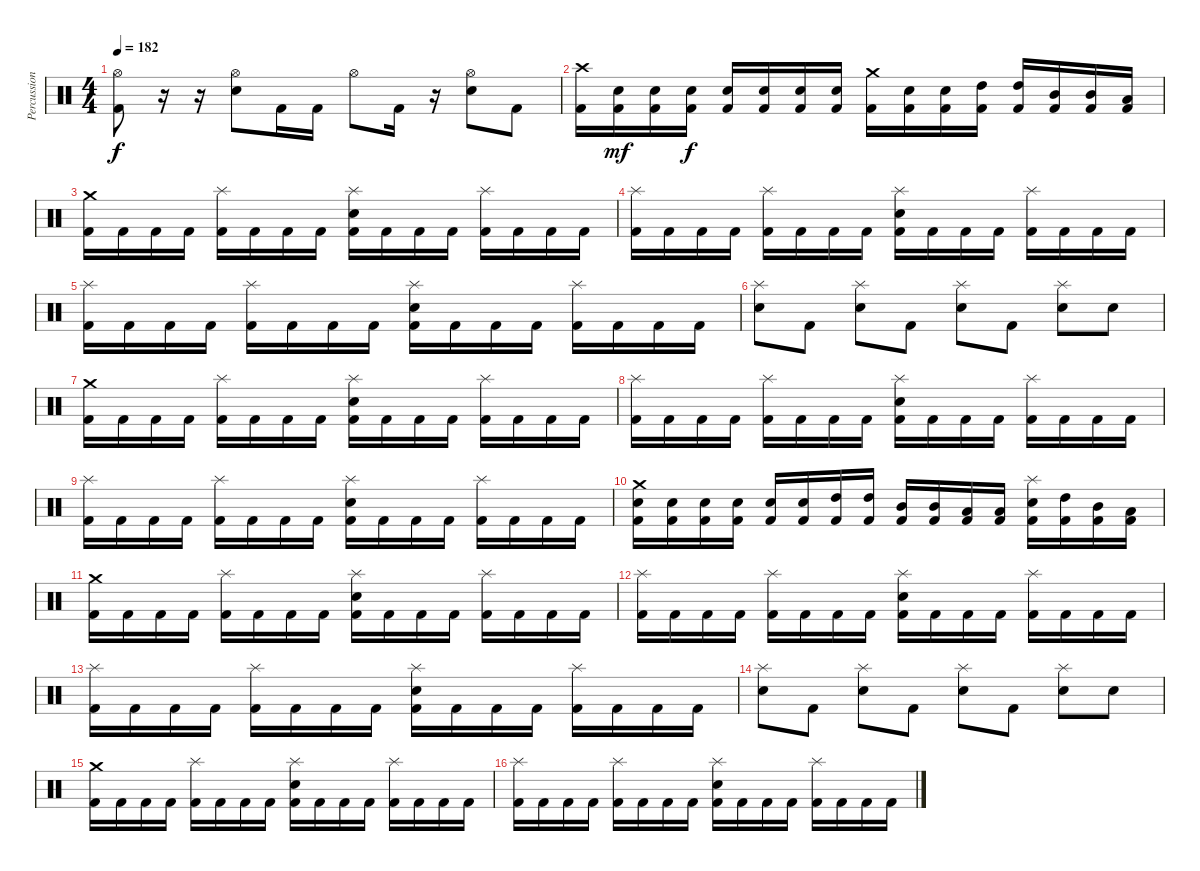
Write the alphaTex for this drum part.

\track ("Percussion" "Percussion") {instrument percussion}
\staff {score}
\articulation defaults
\ts (4 4)
\tempo 182
\clef neutral
\ks c
("Hi-Hat (open)" "Kick (hit) 2").8{dy f} r.16 r.16 ("Hi-Hat (open)" "Electric Snare (hit)").8 "Kick (hit) 2".16 "Kick (hit) 2".16 "Hi-Hat (open)".8 "Kick (hit) 2".16 r.16 ("Hi-Hat (open)" "Electric Snare (hit)").8 "Kick (hit) 2".8 |
("Crash high (hit)" "Kick (hit) 2").16 ("Electric Snare (hit)" "Kick (hit) 2").16{dy mf} ("Electric Snare (hit)" "Kick (hit) 2").16 ("Electric Snare (hit)" "Kick (hit) 2").16{dy f} ("Electric Snare (hit)" "Kick (hit) 2").16 ("Electric Snare (hit)" "Kick (hit) 2").16 ("Electric Snare (hit)" "Kick (hit) 2").16 ("Electric Snare (hit)" "Kick (hit) 2").16 ("Crash medium (hit)" "Kick (hit) 2").16 ("Electric Snare (hit)" "Kick (hit) 2").16 ("Electric Snare (hit)" "Kick (hit) 2").16 ("High Tom (hit)" "Kick (hit) 2").16 ("High Tom (hit)" "Kick (hit) 2").16 ("Mid Tom (hit)" "Kick (hit) 2").16 ("Mid Tom (hit)" "Kick (hit) 2").16 ("Low Tom (hit)" "Kick (hit) 2").16 |
("Crash medium (hit)" "Kick (hit) 2").16 "Kick (hit) 2".16 "Kick (hit) 2".16 "Kick (hit) 2".16 ("Splash (hit)" "Kick (hit) 2").16 "Kick (hit) 2".16 "Kick (hit) 2".16 "Kick (hit) 2".16 ("Splash (hit)" "Electric Snare (hit)" "Kick (hit) 2").16 "Kick (hit) 2".16 "Kick (hit) 2".16 "Kick (hit) 2".16 ("Splash (hit)" "Kick (hit) 2").16 "Kick (hit) 2".16 "Kick (hit) 2".16 "Kick (hit) 2".16 |
("Splash (hit)" "Kick (hit) 2").16 "Kick (hit) 2".16 "Kick (hit) 2".16 "Kick (hit) 2".16 ("Splash (hit)" "Kick (hit) 2").16 "Kick (hit) 2".16 "Kick (hit) 2".16 "Kick (hit) 2".16 ("Splash (hit)" "Electric Snare (hit)" "Kick (hit) 2").16 "Kick (hit) 2".16 "Kick (hit) 2".16 "Kick (hit) 2".16 ("Splash (hit)" "Kick (hit) 2").16 "Kick (hit) 2".16 "Kick (hit) 2".16 "Kick (hit) 2".16 |
("Splash (hit)" "Kick (hit) 2").16 "Kick (hit) 2".16 "Kick (hit) 2".16 "Kick (hit) 2".16 ("Splash (hit)" "Kick (hit) 2").16 "Kick (hit) 2".16 "Kick (hit) 2".16 "Kick (hit) 2".16 ("Splash (hit)" "Electric Snare (hit)" "Kick (hit) 2").16 "Kick (hit) 2".16 "Kick (hit) 2".16 "Kick (hit) 2".16 ("Splash (hit)" "Kick (hit) 2").16 "Kick (hit) 2".16 "Kick (hit) 2".16 "Kick (hit) 2".16 |
("Splash (hit)" "Electric Snare (hit)").8 "Kick (hit) 2".8 ("Splash (hit)" "Electric Snare (hit)").8 "Kick (hit) 2".8 ("Splash (hit)" "Electric Snare (hit)").8 "Kick (hit) 2".8 ("Splash (hit)" "Electric Snare (hit)").8 "Electric Snare (hit)".8 |
("Crash medium (hit)" "Kick (hit) 2").16 "Kick (hit) 2".16 "Kick (hit) 2".16 "Kick (hit) 2".16 ("Splash (hit)" "Kick (hit) 2").16 "Kick (hit) 2".16 "Kick (hit) 2".16 "Kick (hit) 2".16 ("Splash (hit)" "Electric Snare (hit)" "Kick (hit) 2").16 "Kick (hit) 2".16 "Kick (hit) 2".16 "Kick (hit) 2".16 ("Splash (hit)" "Kick (hit) 2").16 "Kick (hit) 2".16 "Kick (hit) 2".16 "Kick (hit) 2".16 |
("Splash (hit)" "Kick (hit) 2").16 "Kick (hit) 2".16 "Kick (hit) 2".16 "Kick (hit) 2".16 ("Splash (hit)" "Kick (hit) 2").16 "Kick (hit) 2".16 "Kick (hit) 2".16 "Kick (hit) 2".16 ("Splash (hit)" "Electric Snare (hit)" "Kick (hit) 2").16 "Kick (hit) 2".16 "Kick (hit) 2".16 "Kick (hit) 2".16 ("Splash (hit)" "Kick (hit) 2").16 "Kick (hit) 2".16 "Kick (hit) 2".16 "Kick (hit) 2".16 |
("Splash (hit)" "Kick (hit) 2").16 "Kick (hit) 2".16 "Kick (hit) 2".16 "Kick (hit) 2".16 ("Splash (hit)" "Kick (hit) 2").16 "Kick (hit) 2".16 "Kick (hit) 2".16 "Kick (hit) 2".16 ("Splash (hit)" "Electric Snare (hit)" "Kick (hit) 2").16 "Kick (hit) 2".16 "Kick (hit) 2".16 "Kick (hit) 2".16 ("Splash (hit)" "Kick (hit) 2").16 "Kick (hit) 2".16 "Kick (hit) 2".16 "Kick (hit) 2".16 |
("Crash medium (hit)" "Electric Snare (hit)" "Kick (hit) 2").16 ("Electric Snare (hit)" "Kick (hit) 2").16 ("Electric Snare (hit)" "Kick (hit) 2").16 ("Electric Snare (hit)" "Kick (hit) 2").16 ("Electric Snare (hit)" "Kick (hit) 2").16 ("Electric Snare (hit)" "Kick (hit) 2").16 ("High Tom (hit)" "Kick (hit) 2").16 ("High Tom (hit)" "Kick (hit) 2").16 ("Mid Tom (hit)" "Kick (hit) 2").16 ("Mid Tom (hit)" "Kick (hit) 2").16 ("Low Tom (hit)" "Kick (hit) 2").16 ("Low Tom (hit)" "Kick (hit) 2").16 ("Splash (hit)" "Electric Snare (hit)" "Kick (hit) 2").16 ("High Tom (hit)" "Kick (hit) 2").16 ("Mid Tom (hit)" "Kick (hit) 2").16 ("Low Tom (hit)" "Kick (hit) 2").16 |
("Crash medium (hit)" "Kick (hit) 2").16 "Kick (hit) 2".16 "Kick (hit) 2".16 "Kick (hit) 2".16 ("Splash (hit)" "Kick (hit) 2").16 "Kick (hit) 2".16 "Kick (hit) 2".16 "Kick (hit) 2".16 ("Splash (hit)" "Electric Snare (hit)" "Kick (hit) 2").16 "Kick (hit) 2".16 "Kick (hit) 2".16 "Kick (hit) 2".16 ("Splash (hit)" "Kick (hit) 2").16 "Kick (hit) 2".16 "Kick (hit) 2".16 "Kick (hit) 2".16 |
("Splash (hit)" "Kick (hit) 2").16 "Kick (hit) 2".16 "Kick (hit) 2".16 "Kick (hit) 2".16 ("Splash (hit)" "Kick (hit) 2").16 "Kick (hit) 2".16 "Kick (hit) 2".16 "Kick (hit) 2".16 ("Splash (hit)" "Electric Snare (hit)" "Kick (hit) 2").16 "Kick (hit) 2".16 "Kick (hit) 2".16 "Kick (hit) 2".16 ("Splash (hit)" "Kick (hit) 2").16 "Kick (hit) 2".16 "Kick (hit) 2".16 "Kick (hit) 2".16 |
("Splash (hit)" "Kick (hit) 2").16 "Kick (hit) 2".16 "Kick (hit) 2".16 "Kick (hit) 2".16 ("Splash (hit)" "Kick (hit) 2").16 "Kick (hit) 2".16 "Kick (hit) 2".16 "Kick (hit) 2".16 ("Splash (hit)" "Electric Snare (hit)" "Kick (hit) 2").16 "Kick (hit) 2".16 "Kick (hit) 2".16 "Kick (hit) 2".16 ("Splash (hit)" "Kick (hit) 2").16 "Kick (hit) 2".16 "Kick (hit) 2".16 "Kick (hit) 2".16 |
("Splash (hit)" "Electric Snare (hit)").8 "Kick (hit) 2".8 ("Splash (hit)" "Electric Snare (hit)").8 "Kick (hit) 2".8 ("Splash (hit)" "Electric Snare (hit)").8 "Kick (hit) 2".8 ("Splash (hit)" "Electric Snare (hit)").8 "Electric Snare (hit)".8 |
("Crash medium (hit)" "Kick (hit) 2").16 "Kick (hit) 2".16 "Kick (hit) 2".16 "Kick (hit) 2".16 ("Splash (hit)" "Kick (hit) 2").16 "Kick (hit) 2".16 "Kick (hit) 2".16 "Kick (hit) 2".16 ("Splash (hit)" "Electric Snare (hit)" "Kick (hit) 2").16 "Kick (hit) 2".16 "Kick (hit) 2".16 "Kick (hit) 2".16 ("Splash (hit)" "Kick (hit) 2").16 "Kick (hit) 2".16 "Kick (hit) 2".16 "Kick (hit) 2".16 |
("Splash (hit)" "Kick (hit) 2").16 "Kick (hit) 2".16 "Kick (hit) 2".16 "Kick (hit) 2".16 ("Splash (hit)" "Kick (hit) 2").16 "Kick (hit) 2".16 "Kick (hit) 2".16 "Kick (hit) 2".16 ("Splash (hit)" "Electric Snare (hit)" "Kick (hit) 2").16 "Kick (hit) 2".16 "Kick (hit) 2".16 "Kick (hit) 2".16 ("Splash (hit)" "Kick (hit) 2").16 "Kick (hit) 2".16 "Kick (hit) 2".16 "Kick (hit) 2".16
